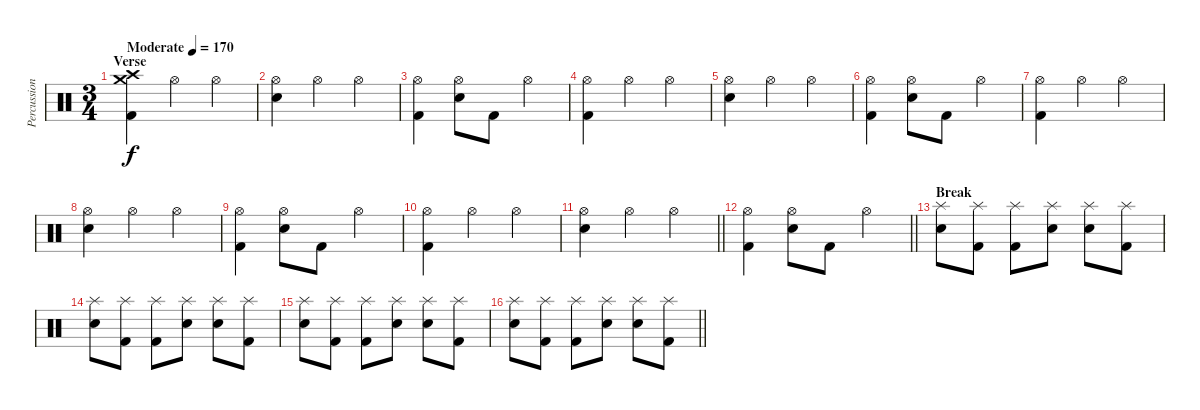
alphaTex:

\track ("Percussion" "Percussion") {instrument percussion}
\staff {score}
\articulation defaults
\ts (3 4)
\section ("" "Verse")
\tempo (170 "Moderate")
\clef neutral
\ks c
("Crash medium (hit)" "Crash high (hit)" "Kick (hit) 2").4{dy f} "Hi-Hat (open)".4 "Hi-Hat (open)".4 |
("Hi-Hat (open)" "Electric Snare (hit)").4 "Hi-Hat (open)".4 "Hi-Hat (open)".4 |
("Hi-Hat (open)" "Kick (hit) 2").4 ("Hi-Hat (open)" "Electric Snare (hit)").8 "Kick (hit) 2".8 "Hi-Hat (open)".4 |
("Hi-Hat (open)" "Kick (hit) 2").4 "Hi-Hat (open)".4 "Hi-Hat (open)".4 |
("Hi-Hat (open)" "Electric Snare (hit)").4 "Hi-Hat (open)".4 "Hi-Hat (open)".4 |
("Hi-Hat (open)" "Kick (hit) 2").4 ("Hi-Hat (open)" "Electric Snare (hit)").8 "Kick (hit) 2".8 "Hi-Hat (open)".4 |
("Hi-Hat (open)" "Kick (hit) 2").4 "Hi-Hat (open)".4 "Hi-Hat (open)".4 |
("Hi-Hat (open)" "Electric Snare (hit)").4 "Hi-Hat (open)".4 "Hi-Hat (open)".4 |
("Hi-Hat (open)" "Kick (hit) 2").4 ("Hi-Hat (open)" "Electric Snare (hit)").8 "Kick (hit) 2".8 "Hi-Hat (open)".4 |
("Hi-Hat (open)" "Kick (hit) 2").4 "Hi-Hat (open)".4 "Hi-Hat (open)".4 |
\barLineRight lightlight
("Hi-Hat (open)" "Electric Snare (hit)").4 "Hi-Hat (open)".4 "Hi-Hat (open)".4 |
\barLineRight lightlight
("Hi-Hat (open)" "Kick (hit) 2").4 ("Hi-Hat (open)" "Electric Snare (hit)").8 "Kick (hit) 2".8 "Hi-Hat (open)".4 |
\section ("" "Break")
("Splash (hit)" "Electric Snare (hit)").8 ("Splash (hit)" "Kick (hit) 2").8 ("Splash (hit)" "Kick (hit) 2").8 ("Splash (hit)" "Electric Snare (hit)").8 ("Splash (hit)" "Electric Snare (hit)").8 ("Splash (hit)" "Kick (hit) 2").8 |
("Splash (hit)" "Electric Snare (hit)").8 ("Splash (hit)" "Kick (hit) 2").8 ("Splash (hit)" "Kick (hit) 2").8 ("Splash (hit)" "Electric Snare (hit)").8 ("Splash (hit)" "Electric Snare (hit)").8 ("Splash (hit)" "Kick (hit) 2").8 |
("Splash (hit)" "Electric Snare (hit)").8 ("Splash (hit)" "Kick (hit) 2").8 ("Splash (hit)" "Kick (hit) 2").8 ("Splash (hit)" "Electric Snare (hit)").8 ("Splash (hit)" "Electric Snare (hit)").8 ("Splash (hit)" "Kick (hit) 2").8 |
\barLineRight lightlight
("Splash (hit)" "Electric Snare (hit)").8 ("Splash (hit)" "Kick (hit) 2").8 ("Splash (hit)" "Kick (hit) 2").8 ("Splash (hit)" "Electric Snare (hit)").8 ("Splash (hit)" "Electric Snare (hit)").8 ("Splash (hit)" "Kick (hit) 2").8
